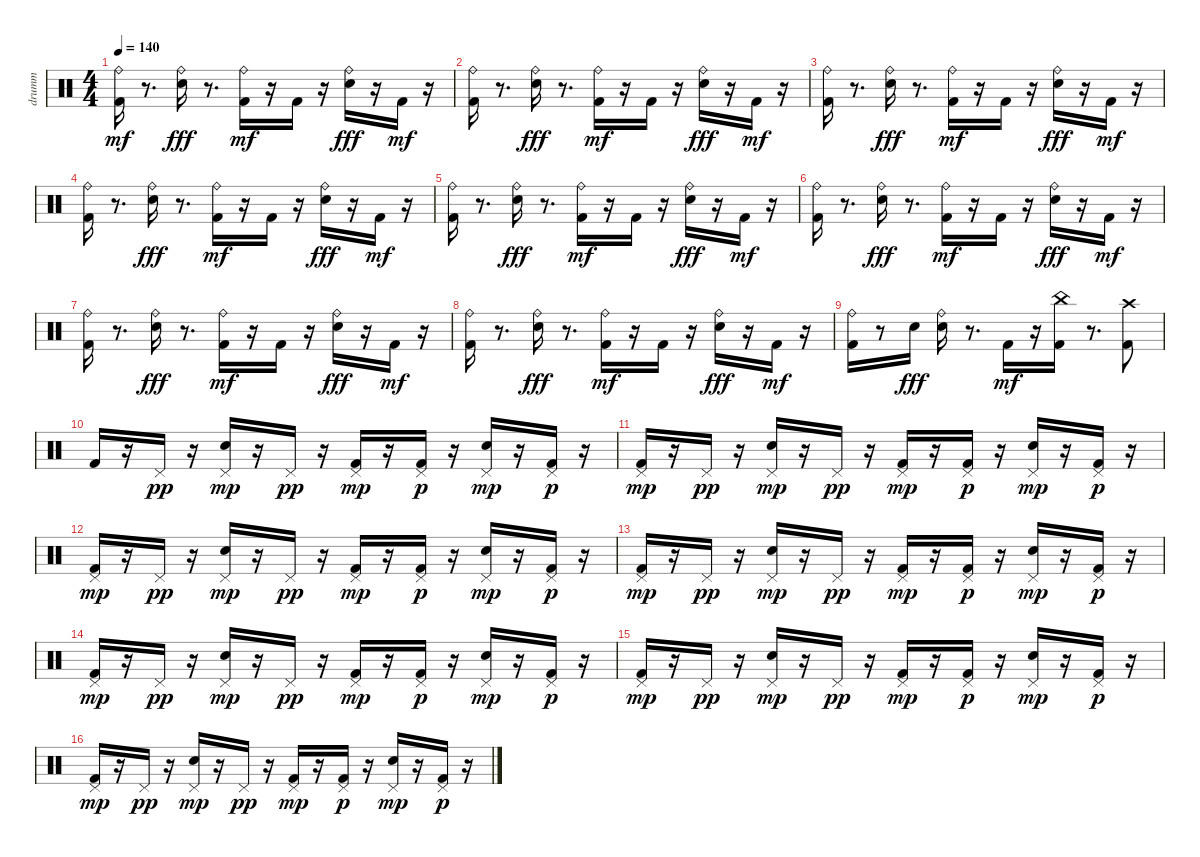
\track ("drumm" "drumm") {instrument percussion}
\staff {score}
\articulation defaults
\ts (4 4)
\tempo 140
\clef neutral
\ks c
("Ride (bell)" "Kick (hit) 2").16{dy mf} r.8{d} ("Ride (bell)" "Electric Snare (hit)").16{dy fff} r.8{d} ("Ride (bell)" "Kick (hit) 2").16{dy mf} r.16 "Kick (hit) 2".16 r.16 ("Ride (bell)" "Electric Snare (hit)").16{dy fff} r.16 "Kick (hit) 2".16{dy mf} r.16 |
("Ride (bell)" "Kick (hit) 2").16 r.8{d} ("Ride (bell)" "Electric Snare (hit)").16{dy fff} r.8{d} ("Ride (bell)" "Kick (hit) 2").16{dy mf} r.16 "Kick (hit) 2".16 r.16 ("Ride (bell)" "Electric Snare (hit)").16{dy fff} r.16 "Kick (hit) 2".16{dy mf} r.16 |
("Ride (bell)" "Kick (hit) 2").16 r.8{d} ("Ride (bell)" "Electric Snare (hit)").16{dy fff} r.8{d} ("Ride (bell)" "Kick (hit) 2").16{dy mf} r.16 "Kick (hit) 2".16 r.16 ("Ride (bell)" "Electric Snare (hit)").16{dy fff} r.16 "Kick (hit) 2".16{dy mf} r.16 |
("Ride (bell)" "Kick (hit) 2").16 r.8{d} ("Ride (bell)" "Electric Snare (hit)").16{dy fff} r.8{d} ("Ride (bell)" "Kick (hit) 2").16{dy mf} r.16 "Kick (hit) 2".16 r.16 ("Ride (bell)" "Electric Snare (hit)").16{dy fff} r.16 "Kick (hit) 2".16{dy mf} r.16 |
("Ride (bell)" "Kick (hit) 2").16 r.8{d} ("Ride (bell)" "Electric Snare (hit)").16{dy fff} r.8{d} ("Ride (bell)" "Kick (hit) 2").16{dy mf} r.16 "Kick (hit) 2".16 r.16 ("Ride (bell)" "Electric Snare (hit)").16{dy fff} r.16 "Kick (hit) 2".16{dy mf} r.16 |
("Ride (bell)" "Kick (hit) 2").16 r.8{d} ("Ride (bell)" "Electric Snare (hit)").16{dy fff} r.8{d} ("Ride (bell)" "Kick (hit) 2").16{dy mf} r.16 "Kick (hit) 2".16 r.16 ("Ride (bell)" "Electric Snare (hit)").16{dy fff} r.16 "Kick (hit) 2".16{dy mf} r.16 |
("Ride (bell)" "Kick (hit) 2").16 r.8{d} ("Ride (bell)" "Electric Snare (hit)").16{dy fff} r.8{d} ("Ride (bell)" "Kick (hit) 2").16{dy mf} r.16 "Kick (hit) 2".16 r.16 ("Ride (bell)" "Electric Snare (hit)").16{dy fff} r.16 "Kick (hit) 2".16{dy mf} r.16 |
("Ride (bell)" "Kick (hit) 2").16 r.8{d} ("Ride (bell)" "Electric Snare (hit)").16{dy fff} r.8{d} ("Ride (bell)" "Kick (hit) 2").16{dy mf} r.16 "Kick (hit) 2".16 r.16 ("Ride (bell)" "Electric Snare (hit)").16{dy fff} r.16 "Kick (hit) 2".16{dy mf} r.16 |
("Ride (bell)" "Kick (hit) 2").16 r.8 "Electric Snare (hit)".16{dy fff} ("Ride (bell)" "Electric Snare (hit)").16 r.8{d} "Kick (hit) 2".16{dy mf} r.16 ("China (hit)" "Kick (hit) 2").16 r.8{d} ("Crash high (hit)" "Kick (hit) 2").8 |
"Kick (hit) 2".16 r.16 "Pedal Hi-Hat (hit)".16{dy pp} r.16 ("Electric Snare (hit)" "Pedal Hi-Hat (hit)").16{dy mp} r.16 "Pedal Hi-Hat (hit)".16{dy pp} r.16 ("Kick (hit) 2" "Pedal Hi-Hat (hit)").16{dy mp} r.16 ("Kick (hit) 2" "Pedal Hi-Hat (hit)").16{dy p} r.16 ("Electric Snare (hit)" "Pedal Hi-Hat (hit)").16{dy mp} r.16 ("Kick (hit) 2" "Pedal Hi-Hat (hit)").16{dy p} r.16 |
("Kick (hit) 2" "Pedal Hi-Hat (hit)").16{dy mp} r.16 "Pedal Hi-Hat (hit)".16{dy pp} r.16 ("Electric Snare (hit)" "Pedal Hi-Hat (hit)").16{dy mp} r.16 "Pedal Hi-Hat (hit)".16{dy pp} r.16 ("Kick (hit) 2" "Pedal Hi-Hat (hit)").16{dy mp} r.16 ("Kick (hit) 2" "Pedal Hi-Hat (hit)").16{dy p} r.16 ("Electric Snare (hit)" "Pedal Hi-Hat (hit)").16{dy mp} r.16 ("Kick (hit) 2" "Pedal Hi-Hat (hit)").16{dy p} r.16 |
("Kick (hit) 2" "Pedal Hi-Hat (hit)").16{dy mp} r.16 "Pedal Hi-Hat (hit)".16{dy pp} r.16 ("Electric Snare (hit)" "Pedal Hi-Hat (hit)").16{dy mp} r.16 "Pedal Hi-Hat (hit)".16{dy pp} r.16 ("Kick (hit) 2" "Pedal Hi-Hat (hit)").16{dy mp} r.16 ("Kick (hit) 2" "Pedal Hi-Hat (hit)").16{dy p} r.16 ("Electric Snare (hit)" "Pedal Hi-Hat (hit)").16{dy mp} r.16 ("Kick (hit) 2" "Pedal Hi-Hat (hit)").16{dy p} r.16 |
("Kick (hit) 2" "Pedal Hi-Hat (hit)").16{dy mp} r.16 "Pedal Hi-Hat (hit)".16{dy pp} r.16 ("Electric Snare (hit)" "Pedal Hi-Hat (hit)").16{dy mp} r.16 "Pedal Hi-Hat (hit)".16{dy pp} r.16 ("Kick (hit) 2" "Pedal Hi-Hat (hit)").16{dy mp} r.16 ("Kick (hit) 2" "Pedal Hi-Hat (hit)").16{dy p} r.16 ("Electric Snare (hit)" "Pedal Hi-Hat (hit)").16{dy mp} r.16 ("Kick (hit) 2" "Pedal Hi-Hat (hit)").16{dy p} r.16 |
("Kick (hit) 2" "Pedal Hi-Hat (hit)").16{dy mp} r.16 "Pedal Hi-Hat (hit)".16{dy pp} r.16 ("Electric Snare (hit)" "Pedal Hi-Hat (hit)").16{dy mp} r.16 "Pedal Hi-Hat (hit)".16{dy pp} r.16 ("Kick (hit) 2" "Pedal Hi-Hat (hit)").16{dy mp} r.16 ("Kick (hit) 2" "Pedal Hi-Hat (hit)").16{dy p} r.16 ("Electric Snare (hit)" "Pedal Hi-Hat (hit)").16{dy mp} r.16 ("Kick (hit) 2" "Pedal Hi-Hat (hit)").16{dy p} r.16 |
("Kick (hit) 2" "Pedal Hi-Hat (hit)").16{dy mp} r.16 "Pedal Hi-Hat (hit)".16{dy pp} r.16 ("Electric Snare (hit)" "Pedal Hi-Hat (hit)").16{dy mp} r.16 "Pedal Hi-Hat (hit)".16{dy pp} r.16 ("Kick (hit) 2" "Pedal Hi-Hat (hit)").16{dy mp} r.16 ("Kick (hit) 2" "Pedal Hi-Hat (hit)").16{dy p} r.16 ("Electric Snare (hit)" "Pedal Hi-Hat (hit)").16{dy mp} r.16 ("Kick (hit) 2" "Pedal Hi-Hat (hit)").16{dy p} r.16 |
("Kick (hit) 2" "Pedal Hi-Hat (hit)").16{dy mp} r.16 "Pedal Hi-Hat (hit)".16{dy pp} r.16 ("Electric Snare (hit)" "Pedal Hi-Hat (hit)").16{dy mp} r.16 "Pedal Hi-Hat (hit)".16{dy pp} r.16 ("Kick (hit) 2" "Pedal Hi-Hat (hit)").16{dy mp} r.16 ("Kick (hit) 2" "Pedal Hi-Hat (hit)").16{dy p} r.16 ("Electric Snare (hit)" "Pedal Hi-Hat (hit)").16{dy mp} r.16 ("Kick (hit) 2" "Pedal Hi-Hat (hit)").16{dy p} r.16
